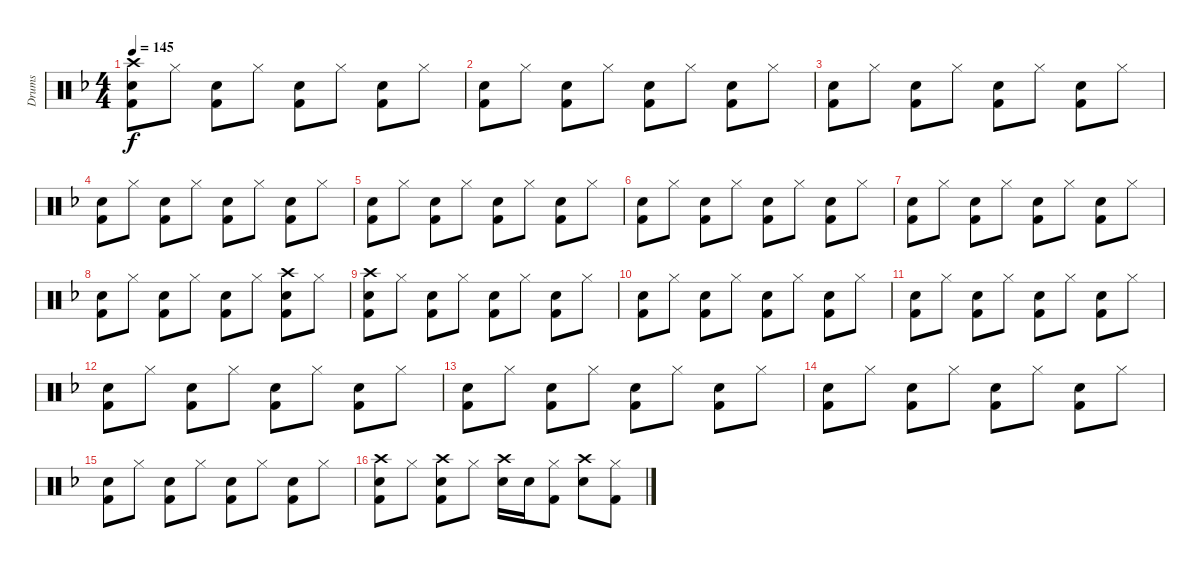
\track ("Drums" "Drums") {instrument percussion}
\staff {score}
\articulation defaults
\ts (4 4)
\tempo 145
\clef neutral
\ks f
("Kick (hit) 2" "Snare (hit) 2" "Crash high (hit)").8{dy f} "Hi-Hat (closed)".8 ("Kick (hit) 2" "Snare (hit) 2").8 "Hi-Hat (closed)".8 ("Kick (hit) 2" "Snare (hit) 2").8 "Hi-Hat (closed)".8 ("Kick (hit) 2" "Snare (hit) 2").8 "Hi-Hat (closed)".8 |
("Kick (hit) 2" "Snare (hit) 2").8 "Hi-Hat (closed)".8 ("Kick (hit) 2" "Snare (hit) 2").8 "Hi-Hat (closed)".8 ("Kick (hit) 2" "Snare (hit) 2").8 "Hi-Hat (closed)".8 ("Kick (hit) 2" "Snare (hit) 2").8 "Hi-Hat (closed)".8 |
("Kick (hit) 2" "Snare (hit) 2").8 "Hi-Hat (closed)".8 ("Kick (hit) 2" "Snare (hit) 2").8 "Hi-Hat (closed)".8 ("Kick (hit) 2" "Snare (hit) 2").8 "Hi-Hat (closed)".8 ("Kick (hit) 2" "Snare (hit) 2").8 "Hi-Hat (closed)".8 |
("Kick (hit) 2" "Snare (hit) 2").8 "Hi-Hat (closed)".8 ("Kick (hit) 2" "Snare (hit) 2").8 "Hi-Hat (closed)".8 ("Kick (hit) 2" "Snare (hit) 2").8 "Hi-Hat (closed)".8 ("Kick (hit) 2" "Snare (hit) 2").8 "Hi-Hat (closed)".8 |
("Kick (hit) 2" "Snare (hit) 2").8 "Hi-Hat (closed)".8 ("Kick (hit) 2" "Snare (hit) 2").8 "Hi-Hat (closed)".8 ("Kick (hit) 2" "Snare (hit) 2").8 "Hi-Hat (closed)".8 ("Kick (hit) 2" "Snare (hit) 2").8 "Hi-Hat (closed)".8 |
("Kick (hit) 2" "Snare (hit) 2").8 "Hi-Hat (closed)".8 ("Kick (hit) 2" "Snare (hit) 2").8 "Hi-Hat (closed)".8 ("Kick (hit) 2" "Snare (hit) 2").8 "Hi-Hat (closed)".8 ("Kick (hit) 2" "Snare (hit) 2").8 "Hi-Hat (closed)".8 |
("Kick (hit) 2" "Snare (hit) 2").8 "Hi-Hat (closed)".8 ("Kick (hit) 2" "Snare (hit) 2").8 "Hi-Hat (closed)".8 ("Kick (hit) 2" "Snare (hit) 2").8 "Hi-Hat (closed)".8 ("Kick (hit) 2" "Snare (hit) 2").8 "Hi-Hat (closed)".8 |
("Kick (hit) 2" "Snare (hit) 2").8 "Hi-Hat (closed)".8 ("Kick (hit) 2" "Snare (hit) 2").8 "Hi-Hat (closed)".8 ("Kick (hit) 2" "Snare (hit) 2").8 "Hi-Hat (closed)".8 ("Kick (hit) 2" "Snare (hit) 2" "Crash high (hit)").8 "Hi-Hat (closed)".8 |
("Kick (hit) 2" "Snare (hit) 2" "Crash high (hit)").8 "Hi-Hat (closed)".8 ("Kick (hit) 2" "Snare (hit) 2").8 "Hi-Hat (closed)".8 ("Kick (hit) 2" "Snare (hit) 2").8 "Hi-Hat (closed)".8 ("Kick (hit) 2" "Snare (hit) 2").8 "Hi-Hat (closed)".8 |
("Kick (hit) 2" "Snare (hit) 2").8 "Hi-Hat (closed)".8 ("Kick (hit) 2" "Snare (hit) 2").8 "Hi-Hat (closed)".8 ("Kick (hit) 2" "Snare (hit) 2").8 "Hi-Hat (closed)".8 ("Kick (hit) 2" "Snare (hit) 2").8 "Hi-Hat (closed)".8 |
("Kick (hit) 2" "Snare (hit) 2").8 "Hi-Hat (closed)".8 ("Kick (hit) 2" "Snare (hit) 2").8 "Hi-Hat (closed)".8 ("Kick (hit) 2" "Snare (hit) 2").8 "Hi-Hat (closed)".8 ("Kick (hit) 2" "Snare (hit) 2").8 "Hi-Hat (closed)".8 |
("Kick (hit) 2" "Snare (hit) 2").8 "Hi-Hat (closed)".8 ("Kick (hit) 2" "Snare (hit) 2").8 "Hi-Hat (closed)".8 ("Kick (hit) 2" "Snare (hit) 2").8 "Hi-Hat (closed)".8 ("Kick (hit) 2" "Snare (hit) 2").8 "Hi-Hat (closed)".8 |
("Kick (hit) 2" "Snare (hit) 2").8 "Hi-Hat (closed)".8 ("Kick (hit) 2" "Snare (hit) 2").8 "Hi-Hat (closed)".8 ("Kick (hit) 2" "Snare (hit) 2").8 "Hi-Hat (closed)".8 ("Kick (hit) 2" "Snare (hit) 2").8 "Hi-Hat (closed)".8 |
("Kick (hit) 2" "Snare (hit) 2").8 "Hi-Hat (closed)".8 ("Kick (hit) 2" "Snare (hit) 2").8 "Hi-Hat (closed)".8 ("Kick (hit) 2" "Snare (hit) 2").8 "Hi-Hat (closed)".8 ("Kick (hit) 2" "Snare (hit) 2").8 "Hi-Hat (closed)".8 |
("Kick (hit) 2" "Snare (hit) 2").8 "Hi-Hat (closed)".8 ("Kick (hit) 2" "Snare (hit) 2").8 "Hi-Hat (closed)".8 ("Kick (hit) 2" "Snare (hit) 2").8 "Hi-Hat (closed)".8 ("Kick (hit) 2" "Snare (hit) 2").8 "Hi-Hat (closed)".8 |
("Kick (hit) 2" "Snare (hit) 2" "Crash high (hit)").8 "Hi-Hat (closed)".8 ("Kick (hit) 2" "Snare (hit) 2" "Crash high (hit)").8 "Hi-Hat (closed)".8 ("Crash high (hit)" "Snare (hit) 2").16 "Snare (hit) 2".16 ("Kick (hit) 2" "Hi-Hat (closed)").8 ("Snare (hit) 2" "Crash high (hit)").8 ("Kick (hit) 2" "Hi-Hat (closed)").8
